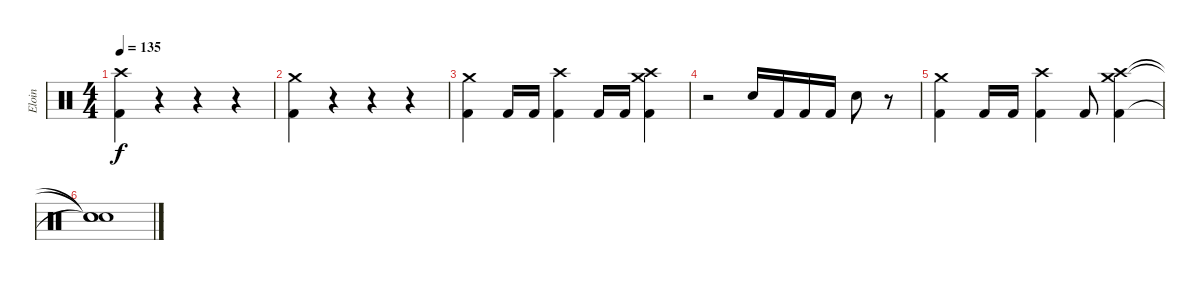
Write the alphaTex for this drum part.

\track ("Eloin" "Eloin") {instrument percussion}
\staff {score}
\articulation defaults
\ts (4 4)
\tempo 135
\clef neutral
\ks c
("Crash high (hit)" "Kick (hit) 2").4{dy f} r.4 r.4 r.4 |
("Crash medium (hit)" "Kick (hit) 2").4 r.4 r.4 r.4 |
("Kick (hit) 2" "Crash medium (hit)").4 "Kick (hit) 2".16 "Kick (hit) 2".16 ("Kick (hit) 2" "Crash high (hit)").4 "Kick (hit) 2".16 "Kick (hit) 2".16 ("Kick (hit) 2" "Crash high (hit)" "Crash medium (hit)").4 |
r.2 "Electric Snare (hit)".16 "Kick (hit) 2".16 "Kick (hit) 2".16 "Kick (hit) 2".16 "Electric Snare (hit)".8 r.8 |
("Kick (hit) 2" "Crash medium (hit)").4 "Kick (hit) 2".16 "Kick (hit) 2".16 ("Kick (hit) 2" "Crash high (hit)").4 "Kick (hit) 2".8 ("Kick (hit) 2" "Crash high (hit)" "Crash medium (hit)").4 |
("Snare (hit)"{t} "Snare (hit)"{t} "Snare (hit)"{t}).1
